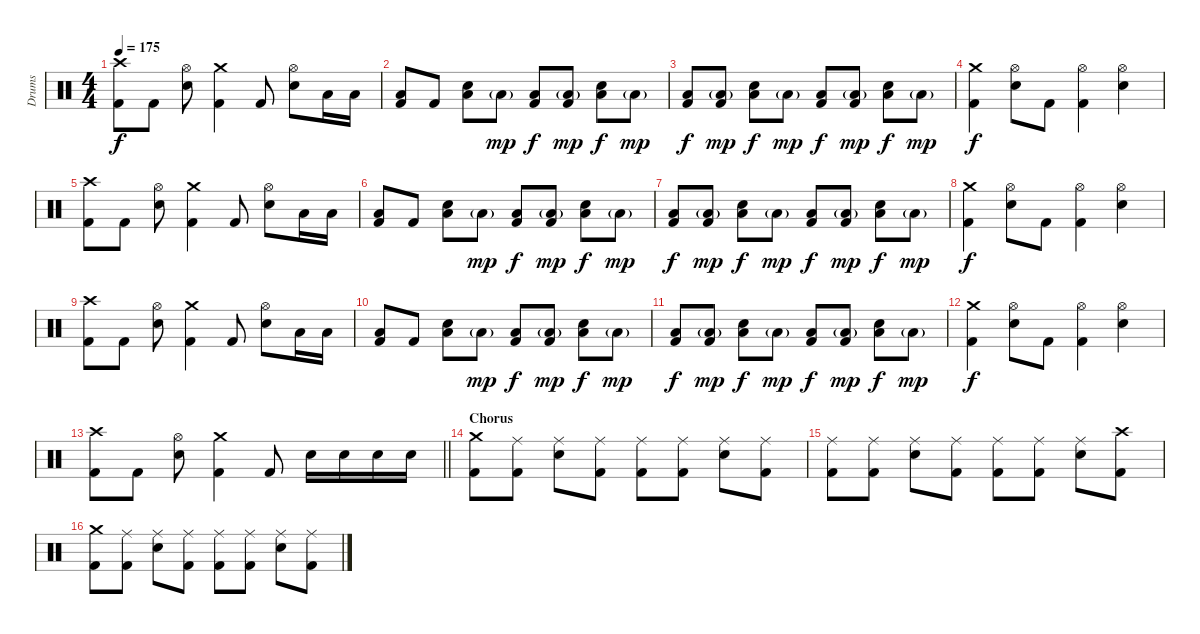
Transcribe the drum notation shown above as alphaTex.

\track ("Drums" "Drums") {instrument percussion}
\staff {score}
\articulation defaults
\ts (4 4)
\tempo 175
\clef neutral
\ks c
("Crash high (hit)" "Kick (hit) 2").8{dy f} "Kick (hit) 2".8 ("Hi-Hat (open)" "Electric Snare (hit)").8 ("Crash medium (hit)" "Kick (hit) 2").4 "Kick (hit) 2".8 ("Hi-Hat (open)" "Electric Snare (hit)").8 "Low Tom (hit)".16 "Low Tom (hit)".16 |
("Low Floor Tom (hit)" "Kick (hit) 2").8 "Kick (hit) 2".8 ("Low Floor Tom (hit)" "Electric Snare (hit)").8 "Low Floor Tom (hit)"{g}.8{dy mp} ("Low Floor Tom (hit)" "Kick (hit) 2").8{dy f} ("Low Floor Tom (hit)"{g} "Kick (hit) 2").8{dy mp} ("Low Floor Tom (hit)" "Electric Snare (hit)").8{dy f} "Low Floor Tom (hit)"{g}.8{dy mp} |
("Low Floor Tom (hit)" "Kick (hit) 2").8{dy f} ("Low Floor Tom (hit)"{g} "Kick (hit) 2").8{dy mp} ("Low Floor Tom (hit)" "Electric Snare (hit)").8{dy f} "Low Floor Tom (hit)"{g}.8{dy mp} ("Low Floor Tom (hit)" "Kick (hit) 2").8{dy f} ("Low Floor Tom (hit)"{g} "Kick (hit) 2").8{dy mp} ("Low Floor Tom (hit)" "Electric Snare (hit)").8{dy f} "Low Floor Tom (hit)"{g}.8{dy mp} |
("Crash medium (hit)" "Kick (hit) 2").4{dy f} ("Hi-Hat (open)" "Electric Snare (hit)").8 "Kick (hit) 2".8 ("Hi-Hat (open)" "Kick (hit) 2").4 ("Hi-Hat (open)" "Electric Snare (hit)").4 |
("Crash high (hit)" "Kick (hit) 2").8 "Kick (hit) 2".8 ("Hi-Hat (open)" "Electric Snare (hit)").8 ("Crash medium (hit)" "Kick (hit) 2").4 "Kick (hit) 2".8 ("Hi-Hat (open)" "Electric Snare (hit)").8 "Low Tom (hit)".16 "Low Tom (hit)".16 |
("Low Floor Tom (hit)" "Kick (hit) 2").8 "Kick (hit) 2".8 ("Low Floor Tom (hit)" "Electric Snare (hit)").8 "Low Floor Tom (hit)"{g}.8{dy mp} ("Low Floor Tom (hit)" "Kick (hit) 2").8{dy f} ("Low Floor Tom (hit)"{g} "Kick (hit) 2").8{dy mp} ("Low Floor Tom (hit)" "Electric Snare (hit)").8{dy f} "Low Floor Tom (hit)"{g}.8{dy mp} |
("Low Floor Tom (hit)" "Kick (hit) 2").8{dy f} ("Low Floor Tom (hit)"{g} "Kick (hit) 2").8{dy mp} ("Low Floor Tom (hit)" "Electric Snare (hit)").8{dy f} "Low Floor Tom (hit)"{g}.8{dy mp} ("Low Floor Tom (hit)" "Kick (hit) 2").8{dy f} ("Low Floor Tom (hit)"{g} "Kick (hit) 2").8{dy mp} ("Low Floor Tom (hit)" "Electric Snare (hit)").8{dy f} "Low Floor Tom (hit)"{g}.8{dy mp} |
("Crash medium (hit)" "Kick (hit) 2").4{dy f} ("Hi-Hat (open)" "Electric Snare (hit)").8 "Kick (hit) 2".8 ("Hi-Hat (open)" "Kick (hit) 2").4 ("Hi-Hat (open)" "Electric Snare (hit)").4 |
("Crash high (hit)" "Kick (hit) 2").8 "Kick (hit) 2".8 ("Hi-Hat (open)" "Electric Snare (hit)").8 ("Crash medium (hit)" "Kick (hit) 2").4 "Kick (hit) 2".8 ("Hi-Hat (open)" "Electric Snare (hit)").8 "Low Tom (hit)".16 "Low Tom (hit)".16 |
("Low Floor Tom (hit)" "Kick (hit) 2").8 "Kick (hit) 2".8 ("Low Floor Tom (hit)" "Electric Snare (hit)").8 "Low Floor Tom (hit)"{g}.8{dy mp} ("Low Floor Tom (hit)" "Kick (hit) 2").8{dy f} ("Low Floor Tom (hit)"{g} "Kick (hit) 2").8{dy mp} ("Low Floor Tom (hit)" "Electric Snare (hit)").8{dy f} "Low Floor Tom (hit)"{g}.8{dy mp} |
("Low Floor Tom (hit)" "Kick (hit) 2").8{dy f} ("Low Floor Tom (hit)"{g} "Kick (hit) 2").8{dy mp} ("Low Floor Tom (hit)" "Electric Snare (hit)").8{dy f} "Low Floor Tom (hit)"{g}.8{dy mp} ("Low Floor Tom (hit)" "Kick (hit) 2").8{dy f} ("Low Floor Tom (hit)"{g} "Kick (hit) 2").8{dy mp} ("Low Floor Tom (hit)" "Electric Snare (hit)").8{dy f} "Low Floor Tom (hit)"{g}.8{dy mp} |
("Crash medium (hit)" "Kick (hit) 2").4{dy f} ("Hi-Hat (open)" "Electric Snare (hit)").8 "Kick (hit) 2".8 ("Hi-Hat (open)" "Kick (hit) 2").4 ("Hi-Hat (open)" "Electric Snare (hit)").4 |
\barLineRight lightlight
("Crash high (hit)" "Kick (hit) 2").8 "Kick (hit) 2".8 ("Hi-Hat (open)" "Electric Snare (hit)").8 ("Crash medium (hit)" "Kick (hit) 2").4 "Kick (hit) 2".8 "Electric Snare (hit)".16 "Electric Snare (hit)".16 "Electric Snare (hit)".16 "Electric Snare (hit)".16 |
\section ("" "Chorus")
("Crash medium (hit)" "Kick (hit) 2").8 ("Ride (middle)" "Kick (hit) 2").8 ("Ride (middle)" "Electric Snare (hit)").8 ("Ride (middle)" "Kick (hit) 2").8 ("Ride (middle)" "Kick (hit) 2").8 ("Ride (middle)" "Kick (hit) 2").8 ("Ride (middle)" "Electric Snare (hit)").8 ("Ride (middle)" "Kick (hit) 2").8 |
("Ride (middle)" "Kick (hit) 2").8 ("Ride (middle)" "Kick (hit) 2").8 ("Ride (middle)" "Electric Snare (hit)").8 ("Ride (middle)" "Kick (hit) 2").8 ("Ride (middle)" "Kick (hit) 2").8 ("Ride (middle)" "Kick (hit) 2").8 ("Ride (middle)" "Electric Snare (hit)").8 ("Crash high (hit)" "Kick (hit) 2").8 |
("Crash medium (hit)" "Kick (hit) 2").8 ("Ride (middle)" "Kick (hit) 2").8 ("Ride (middle)" "Electric Snare (hit)").8 ("Ride (middle)" "Kick (hit) 2").8 ("Ride (middle)" "Kick (hit) 2").8 ("Ride (middle)" "Kick (hit) 2").8 ("Ride (middle)" "Electric Snare (hit)").8 ("Ride (middle)" "Kick (hit) 2").8
